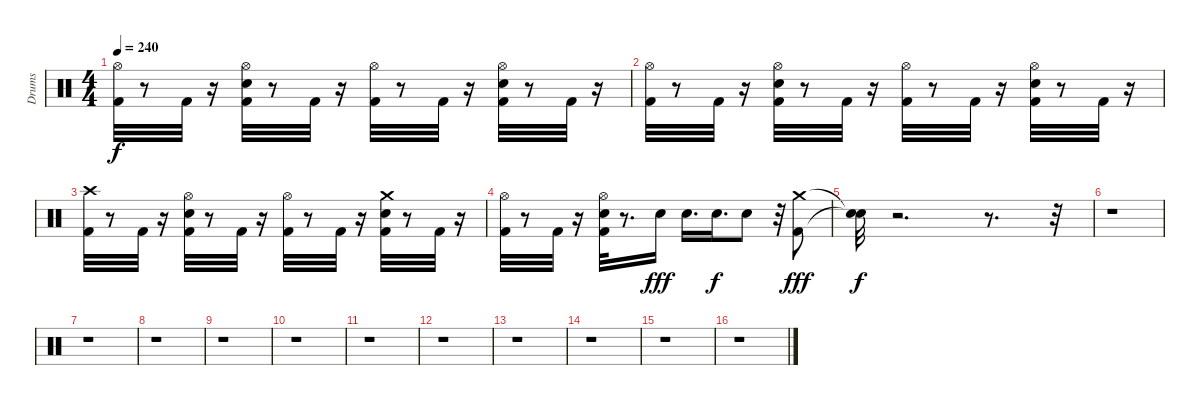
\track ("Drums" "Drums") {instrument percussion}
\staff {score}
\articulation defaults
\ts (4 4)
\tempo 240
\clef neutral
\ks c
("Hi-Hat (open)" "Kick (hit) 2").32{dy f} r.8 "Kick (hit) 2".32 r.16 ("Hi-Hat (open)" "Kick (hit) 2" "Electric Snare (hit)").32 r.8 "Kick (hit) 2".32 r.16 ("Kick (hit) 2" "Hi-Hat (open)").32 r.8 "Kick (hit) 2".32 r.16 ("Kick (hit) 2" "Hi-Hat (open)" "Electric Snare (hit)").32 r.8 "Kick (hit) 2".32 r.16 |
("Hi-Hat (open)" "Kick (hit) 2").32 r.8 "Kick (hit) 2".32 r.16 ("Kick (hit) 2" "Hi-Hat (open)" "Electric Snare (hit)").32 r.8 "Kick (hit) 2".32 r.16 ("Hi-Hat (open)" "Kick (hit) 2").32 r.8 "Kick (hit) 2".32 r.16 ("Electric Snare (hit)" "Hi-Hat (open)" "Kick (hit) 2").32 r.8 "Kick (hit) 2".32 r.16 |
("Kick (hit) 2" "Crash high (hit)").32 r.8 "Kick (hit) 2".32 r.16 ("Kick (hit) 2" "Electric Snare (hit)" "Hi-Hat (open)").32 r.8 "Kick (hit) 2".32 r.16 ("Hi-Hat (open)" "Kick (hit) 2").32 r.8 "Kick (hit) 2".32 r.16 ("Electric Snare (hit)" "Kick (hit) 2" "Crash medium (hit)").32 r.8 "Kick (hit) 2".32 r.16 |
("Hi-Hat (open)" "Kick (hit) 2").32 r.8 "Kick (hit) 2".32 r.16 ("Hi-Hat (open)" "Kick (hit) 2" "Electric Snare (hit)").32 r.8{d} "Electric Snare (hit)".16{dy fff} "Electric Snare (hit)".16{d} "Electric Snare (hit)".16{d dy f} "Electric Snare (hit)".8 r.32 ("Kick (hit) 2" "Crash medium (hit)").8{dy fff} |
("Snare (hit)"{t} "Snare (hit)"{t}).32{dy f} r.2{d} r.8{d} r.32 |
r.1 |
r.1 |
r.1 |
r.1 |
r.1 |
r.1 |
r.1 |
r.1 |
r.1 |
r.1 |
r.1
